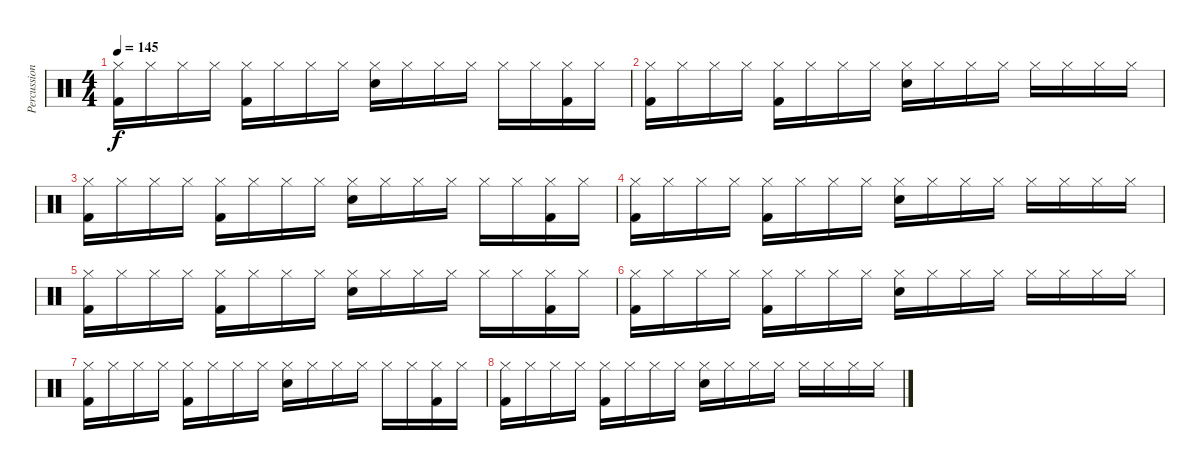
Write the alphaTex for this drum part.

\track ("Percussion" "Percussion") {instrument percussion}
\staff {score}
\articulation defaults
\ts (4 4)
\tempo 145
\clef neutral
\ks c
("Hi-Hat (closed)" "Kick (hit) 2").16{dy f} "Hi-Hat (closed)".16 "Hi-Hat (closed)".16 "Hi-Hat (closed)".16 ("Hi-Hat (closed)" "Kick (hit) 2").16 "Hi-Hat (closed)".16 "Hi-Hat (closed)".16 "Hi-Hat (closed)".16 ("Hi-Hat (closed)" "Hand Clap (hit)").16 "Hi-Hat (closed)".16 "Hi-Hat (closed)".16 "Hi-Hat (closed)".16 "Hi-Hat (closed)".16 "Hi-Hat (closed)".16 ("Hi-Hat (closed)" "Kick (hit) 2").16 "Hi-Hat (closed)".16 |
("Hi-Hat (closed)" "Kick (hit) 2").16 "Hi-Hat (closed)".16 "Hi-Hat (closed)".16 "Hi-Hat (closed)".16 ("Hi-Hat (closed)" "Kick (hit) 2").16 "Hi-Hat (closed)".16 "Hi-Hat (closed)".16 "Hi-Hat (closed)".16 ("Hi-Hat (closed)" "Hand Clap (hit)").16 "Hi-Hat (closed)".16 "Hi-Hat (closed)".16 "Hi-Hat (closed)".16 "Hi-Hat (closed)".16 "Hi-Hat (closed)".16 "Hi-Hat (closed)".16 "Hi-Hat (closed)".16 |
("Hi-Hat (closed)" "Kick (hit) 2").16 "Hi-Hat (closed)".16 "Hi-Hat (closed)".16 "Hi-Hat (closed)".16 ("Hi-Hat (closed)" "Kick (hit) 2").16 "Hi-Hat (closed)".16 "Hi-Hat (closed)".16 "Hi-Hat (closed)".16 ("Hi-Hat (closed)" "Hand Clap (hit)").16 "Hi-Hat (closed)".16 "Hi-Hat (closed)".16 "Hi-Hat (closed)".16 "Hi-Hat (closed)".16 "Hi-Hat (closed)".16 ("Hi-Hat (closed)" "Kick (hit) 2").16 "Hi-Hat (closed)".16 |
("Hi-Hat (closed)" "Kick (hit) 2").16 "Hi-Hat (closed)".16 "Hi-Hat (closed)".16 "Hi-Hat (closed)".16 ("Hi-Hat (closed)" "Kick (hit) 2").16 "Hi-Hat (closed)".16 "Hi-Hat (closed)".16 "Hi-Hat (closed)".16 ("Hi-Hat (closed)" "Hand Clap (hit)").16 "Hi-Hat (closed)".16 "Hi-Hat (closed)".16 "Hi-Hat (closed)".16 "Hi-Hat (closed)".16 "Hi-Hat (closed)".16 "Hi-Hat (closed)".16 "Hi-Hat (closed)".16 |
("Hi-Hat (closed)" "Kick (hit) 2").16 "Hi-Hat (closed)".16 "Hi-Hat (closed)".16 "Hi-Hat (closed)".16 ("Hi-Hat (closed)" "Kick (hit) 2").16 "Hi-Hat (closed)".16 "Hi-Hat (closed)".16 "Hi-Hat (closed)".16 ("Hi-Hat (closed)" "Hand Clap (hit)").16 "Hi-Hat (closed)".16 "Hi-Hat (closed)".16 "Hi-Hat (closed)".16 "Hi-Hat (closed)".16 "Hi-Hat (closed)".16 ("Hi-Hat (closed)" "Kick (hit) 2").16 "Hi-Hat (closed)".16 |
("Hi-Hat (closed)" "Kick (hit) 2").16 "Hi-Hat (closed)".16 "Hi-Hat (closed)".16 "Hi-Hat (closed)".16 ("Hi-Hat (closed)" "Kick (hit) 2").16 "Hi-Hat (closed)".16 "Hi-Hat (closed)".16 "Hi-Hat (closed)".16 ("Hi-Hat (closed)" "Hand Clap (hit)").16 "Hi-Hat (closed)".16 "Hi-Hat (closed)".16 "Hi-Hat (closed)".16 "Hi-Hat (closed)".16 "Hi-Hat (closed)".16 "Hi-Hat (closed)".16 "Hi-Hat (closed)".16 |
("Hi-Hat (closed)" "Kick (hit) 2").16 "Hi-Hat (closed)".16 "Hi-Hat (closed)".16 "Hi-Hat (closed)".16 ("Hi-Hat (closed)" "Kick (hit) 2").16 "Hi-Hat (closed)".16 "Hi-Hat (closed)".16 "Hi-Hat (closed)".16 ("Hi-Hat (closed)" "Hand Clap (hit)").16 "Hi-Hat (closed)".16 "Hi-Hat (closed)".16 "Hi-Hat (closed)".16 "Hi-Hat (closed)".16 "Hi-Hat (closed)".16 ("Hi-Hat (closed)" "Kick (hit) 2").16 "Hi-Hat (closed)".16 |
("Hi-Hat (closed)" "Kick (hit) 2").16 "Hi-Hat (closed)".16 "Hi-Hat (closed)".16 "Hi-Hat (closed)".16 ("Hi-Hat (closed)" "Kick (hit) 2").16 "Hi-Hat (closed)".16 "Hi-Hat (closed)".16 "Hi-Hat (closed)".16 ("Hi-Hat (closed)" "Hand Clap (hit)").16 "Hi-Hat (closed)".16 "Hi-Hat (closed)".16 "Hi-Hat (closed)".16 "Hi-Hat (closed)".16 "Hi-Hat (closed)".16 "Hi-Hat (closed)".16 "Hi-Hat (closed)".16
